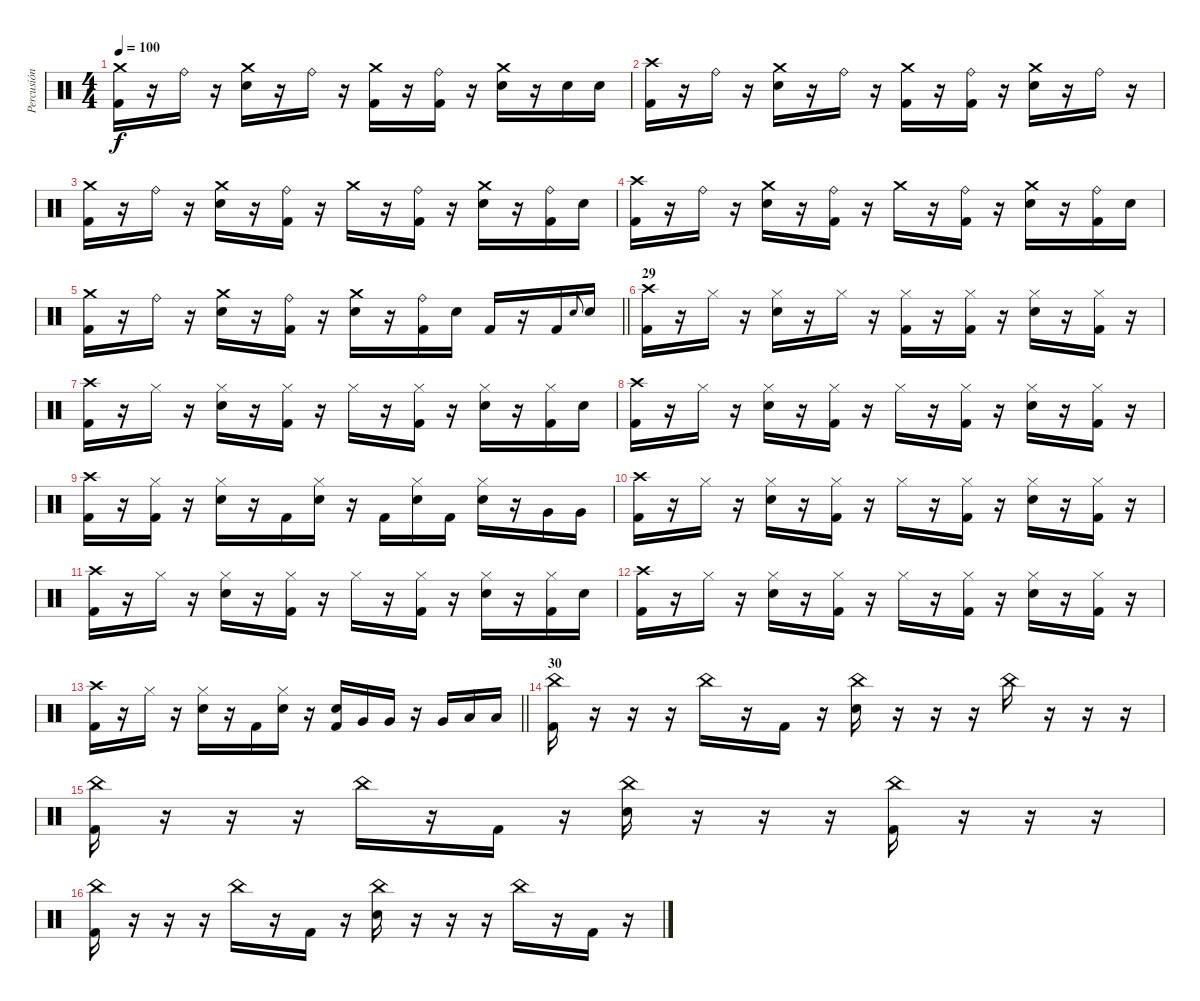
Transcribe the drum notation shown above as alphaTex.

\track ("Percusión" "Percusión") {instrument percussion}
\staff {score}
\articulation defaults
\ts (4 4)
\tempo 100
\clef neutral
\ks c
("Crash medium (hit)" "Kick (hit) 2").16{dy f} r.16 "Ride (bell)".16 r.16 ("Crash medium (hit)" "Electric Snare (hit)").16 r.16 "Ride (bell)".16 r.16 ("Crash medium (hit)" "Kick (hit) 2").16 r.16 ("Ride (bell)" "Kick (hit) 2").16 r.16 ("Crash medium (hit)" "Electric Snare (hit)").16 r.16 "Electric Snare (hit)".16 "Electric Snare (hit)".16 |
("Crash high (hit)" "Kick (hit) 2").16 r.16 "Ride (bell)".16 r.16 ("Crash medium (hit)" "Electric Snare (hit)").16 r.16 "Ride (bell)".16 r.16 ("Crash medium (hit)" "Kick (hit) 2").16 r.16 ("Ride (bell)" "Kick (hit) 2").16 r.16 ("Crash medium (hit)" "Electric Snare (hit)").16 r.16 "Ride (bell)".16 r.16 |
("Crash medium (hit)" "Kick (hit) 2").16 r.16 "Ride (bell)".16 r.16 ("Crash medium (hit)" "Electric Snare (hit)").16 r.16 ("Ride (bell)" "Kick (hit) 2").16 r.16 "Crash medium (hit)".16 r.16 ("Ride (bell)" "Kick (hit) 2").16 r.16 ("Crash medium (hit)" "Electric Snare (hit)").16 r.16 ("Ride (bell)" "Kick (hit) 2").16 "Electric Snare (hit)".16 |
("Crash high (hit)" "Kick (hit) 2").16 r.16 "Ride (bell)".16 r.16 ("Crash medium (hit)" "Electric Snare (hit)").16 r.16 ("Ride (bell)" "Kick (hit) 2").16 r.16 "Crash medium (hit)".16 r.16 ("Ride (bell)" "Kick (hit) 2").16 r.16 ("Crash medium (hit)" "Electric Snare (hit)").16 r.16 ("Ride (bell)" "Kick (hit) 2").16 "Electric Snare (hit)".16 |
\barLineRight lightlight
("Crash medium (hit)" "Kick (hit) 2").16 r.16 "Ride (bell)".16 r.16 ("Crash medium (hit)" "Electric Snare (hit)").16 r.16 ("Ride (bell)" "Kick (hit) 2").16 r.16 ("Crash medium (hit)" "Electric Snare (hit)").16 r.16 ("Ride (bell)" "Kick (hit) 2").16 "Electric Snare (hit)".16 "Kick (hit) 2".16 r.16 "Kick (hit) 2".16 "Electric Snare (hit)".8{gr onbeat} "Electric Snare (hit)".16 |
\section ("" "29")
("Crash high (hit)" "Kick (hit) 2").16 r.16 "Hi-Hat (closed)".16 r.16 ("Hi-Hat (closed)" "Electric Snare (hit)").16 r.16 "Hi-Hat (closed)".16 r.16 ("Hi-Hat (closed)" "Kick (hit) 2").16 r.16 ("Hi-Hat (closed)" "Kick (hit) 2").16 r.16 ("Hi-Hat (closed)" "Electric Snare (hit)").16 r.16 ("Hi-Hat (closed)" "Kick (hit) 2").16 r.16 |
("Crash high (hit)" "Kick (hit) 2").16 r.16 "Hi-Hat (closed)".16 r.16 ("Hi-Hat (closed)" "Electric Snare (hit)").16 r.16 ("Hi-Hat (closed)" "Kick (hit) 2").16 r.16 "Hi-Hat (closed)".16 r.16 ("Hi-Hat (closed)" "Kick (hit) 2").16 r.16 ("Hi-Hat (closed)" "Electric Snare (hit)").16 r.16 ("Hi-Hat (closed)" "Kick (hit) 2").16 "Electric Snare (hit)".16 |
("Crash high (hit)" "Kick (hit) 2").16 r.16 "Hi-Hat (closed)".16 r.16 ("Hi-Hat (closed)" "Electric Snare (hit)").16 r.16 ("Hi-Hat (closed)" "Kick (hit) 2").16 r.16 "Hi-Hat (closed)".16 r.16 ("Hi-Hat (closed)" "Kick (hit) 2").16 r.16 ("Hi-Hat (closed)" "Electric Snare (hit)").16 r.16 ("Hi-Hat (closed)" "Kick (hit) 2").16 r.16 |
("Crash high (hit)" "Kick (hit) 2").16 r.16 ("Hi-Hat (closed)" "Kick (hit) 2").16 r.16 ("Hi-Hat (closed)" "Electric Snare (hit)").16 r.16 "Kick (hit) 2".16 ("Hi-Hat (closed)" "Electric Snare (hit)").16 r.16 "Kick (hit) 2".16 ("Hi-Hat (closed)" "Electric Snare (hit)").16 "Kick (hit) 2".16 ("Hi-Hat (closed)" "Electric Snare (hit)").16 r.16 "Very Low Tom (hit)".16 "Very Low Tom (hit)".16 |
("Crash high (hit)" "Kick (hit) 2").16 r.16 "Hi-Hat (closed)".16 r.16 ("Hi-Hat (closed)" "Electric Snare (hit)").16 r.16 ("Hi-Hat (closed)" "Kick (hit) 2").16 r.16 "Hi-Hat (closed)".16 r.16 ("Hi-Hat (closed)" "Kick (hit) 2").16 r.16 ("Hi-Hat (closed)" "Electric Snare (hit)").16 r.16 ("Hi-Hat (closed)" "Kick (hit) 2").16 r.16 |
("Crash high (hit)" "Kick (hit) 2").16 r.16 "Hi-Hat (closed)".16 r.16 ("Hi-Hat (closed)" "Electric Snare (hit)").16 r.16 ("Hi-Hat (closed)" "Kick (hit) 2").16 r.16 "Hi-Hat (closed)".16 r.16 ("Hi-Hat (closed)" "Kick (hit) 2").16 r.16 ("Hi-Hat (closed)" "Electric Snare (hit)").16 r.16 ("Hi-Hat (closed)" "Kick (hit) 2").16 "Electric Snare (hit)".16 |
("Crash high (hit)" "Kick (hit) 2").16 r.16 "Hi-Hat (closed)".16 r.16 ("Hi-Hat (closed)" "Electric Snare (hit)").16 r.16 ("Hi-Hat (closed)" "Kick (hit) 2").16 r.16 "Hi-Hat (closed)".16 r.16 ("Hi-Hat (closed)" "Kick (hit) 2").16 r.16 ("Hi-Hat (closed)" "Electric Snare (hit)").16 r.16 ("Hi-Hat (closed)" "Kick (hit) 2").16 r.16 |
\barLineRight lightlight
("Crash high (hit)" "Kick (hit) 2").16 r.16 "Hi-Hat (closed)".16 r.16 ("Hi-Hat (closed)" "Electric Snare (hit)").16 r.16 "Kick (hit) 2".16 ("Hi-Hat (closed)" "Electric Snare (hit)").16 r.16 ("Electric Snare (hit)" "Kick (hit) 2").16 "Very Low Tom (hit)".16 "Very Low Tom (hit)".16 r.16 "Very Low Tom (hit)".16 "Low Floor Tom (hit)".16 "Low Floor Tom (hit)".16 |
\section ("" "30")
("China (hit)" "Kick (hit) 2").16 r.16 r.16 r.16 "China (hit)".16 r.16 "Kick (hit) 2".16 r.16 ("China (hit)" "Electric Snare (hit)").16 r.16 r.16 r.16 "China (hit)".16 r.16 r.16 r.16 |
("China (hit)" "Kick (hit) 2").16 r.16 r.16 r.16 "China (hit)".16 r.16 "Kick (hit) 2".16 r.16 ("China (hit)" "Electric Snare (hit)").16 r.16 r.16 r.16 ("China (hit)" "Kick (hit) 2").16 r.16 r.16 r.16 |
("China (hit)" "Kick (hit) 2").16 r.16 r.16 r.16 "China (hit)".16 r.16 "Kick (hit) 2".16 r.16 ("China (hit)" "Electric Snare (hit)").16 r.16 r.16 r.16 "China (hit)".16 r.16 "Kick (hit) 2".16 r.16
